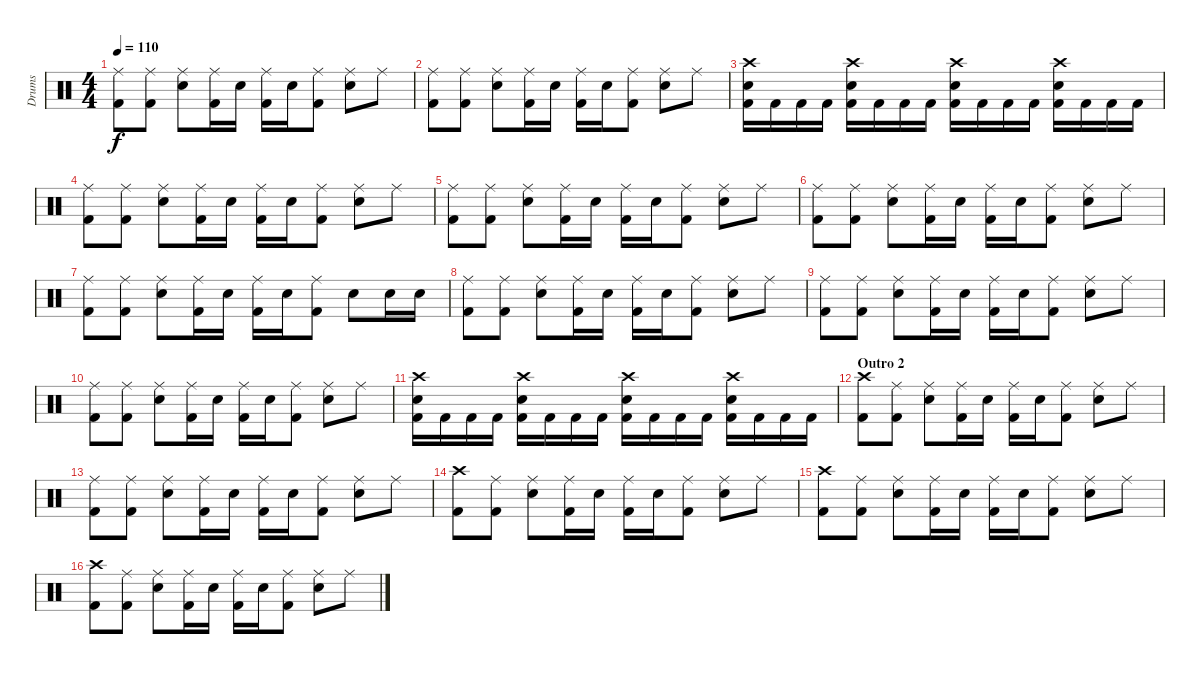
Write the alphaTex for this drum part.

\track ("Drums" "Drums") {instrument percussion}
\staff {score}
\articulation defaults
\ts (4 4)
\tempo 110
\clef neutral
\ks c
("Ride (middle)" "Kick (hit) 2").8{dy f} ("Ride (middle)" "Kick (hit) 2").8 ("Ride (middle)" "Electric Snare (hit)").8 ("Ride (middle)" "Kick (hit) 2").16 "Electric Snare (hit)".16 ("Ride (middle)" "Kick (hit) 2").16 "Electric Snare (hit)".16 ("Ride (middle)" "Kick (hit) 2").8 ("Ride (middle)" "Electric Snare (hit)").8 "Ride (middle)".8 |
("Ride (middle)" "Kick (hit) 2").8 ("Ride (middle)" "Kick (hit) 2").8 ("Ride (middle)" "Electric Snare (hit)").8 ("Ride (middle)" "Kick (hit) 2").16 "Electric Snare (hit)".16 ("Ride (middle)" "Kick (hit) 2").16 "Electric Snare (hit)".16 ("Ride (middle)" "Kick (hit) 2").8 ("Ride (middle)" "Electric Snare (hit)").8 "Ride (middle)".8 |
("Crash high (hit)" "Electric Snare (hit)" "Kick (hit) 2").16 "Kick (hit) 2".16 "Kick (hit) 2".16 "Kick (hit) 2".16 ("Crash high (hit)" "Electric Snare (hit)" "Kick (hit) 2").16 "Kick (hit) 2".16 "Kick (hit) 2".16 "Kick (hit) 2".16 ("Crash high (hit)" "Electric Snare (hit)" "Kick (hit) 2").16 "Kick (hit) 2".16 "Kick (hit) 2".16 "Kick (hit) 2".16 ("Crash high (hit)" "Electric Snare (hit)" "Kick (hit) 2").16 "Kick (hit) 2".16 "Kick (hit) 2".16 "Kick (hit) 2".16 |
("Ride (middle)" "Kick (hit) 2").8 ("Ride (middle)" "Kick (hit) 2").8 ("Ride (middle)" "Electric Snare (hit)").8 ("Ride (middle)" "Kick (hit) 2").16 "Electric Snare (hit)".16 ("Ride (middle)" "Kick (hit) 2").16 "Electric Snare (hit)".16 ("Ride (middle)" "Kick (hit) 2").8 ("Ride (middle)" "Electric Snare (hit)").8 "Ride (middle)".8 |
("Ride (middle)" "Kick (hit) 2").8 ("Ride (middle)" "Kick (hit) 2").8 ("Ride (middle)" "Electric Snare (hit)").8 ("Ride (middle)" "Kick (hit) 2").16 "Electric Snare (hit)".16 ("Ride (middle)" "Kick (hit) 2").16 "Electric Snare (hit)".16 ("Ride (middle)" "Kick (hit) 2").8 ("Ride (middle)" "Electric Snare (hit)").8 "Ride (middle)".8 |
("Ride (middle)" "Kick (hit) 2").8 ("Ride (middle)" "Kick (hit) 2").8 ("Ride (middle)" "Electric Snare (hit)").8 ("Ride (middle)" "Kick (hit) 2").16 "Electric Snare (hit)".16 ("Ride (middle)" "Kick (hit) 2").16 "Electric Snare (hit)".16 ("Ride (middle)" "Kick (hit) 2").8 ("Ride (middle)" "Electric Snare (hit)").8 "Ride (middle)".8 |
("Ride (middle)" "Kick (hit) 2").8 ("Ride (middle)" "Kick (hit) 2").8 ("Ride (middle)" "Electric Snare (hit)").8 ("Ride (middle)" "Kick (hit) 2").16 "Electric Snare (hit)".16 ("Ride (middle)" "Kick (hit) 2").16 "Electric Snare (hit)".16 ("Ride (middle)" "Kick (hit) 2").8 "Electric Snare (hit)".8 "Electric Snare (hit)".16 "Electric Snare (hit)".16 |
("Ride (middle)" "Kick (hit) 2").8 ("Ride (middle)" "Kick (hit) 2").8 ("Ride (middle)" "Electric Snare (hit)").8 ("Ride (middle)" "Kick (hit) 2").16 "Electric Snare (hit)".16 ("Ride (middle)" "Kick (hit) 2").16 "Electric Snare (hit)".16 ("Ride (middle)" "Kick (hit) 2").8 ("Ride (middle)" "Electric Snare (hit)").8 "Ride (middle)".8 |
("Ride (middle)" "Kick (hit) 2").8 ("Ride (middle)" "Kick (hit) 2").8 ("Ride (middle)" "Electric Snare (hit)").8 ("Ride (middle)" "Kick (hit) 2").16 "Electric Snare (hit)".16 ("Ride (middle)" "Kick (hit) 2").16 "Electric Snare (hit)".16 ("Ride (middle)" "Kick (hit) 2").8 ("Ride (middle)" "Electric Snare (hit)").8 "Ride (middle)".8 |
("Ride (middle)" "Kick (hit) 2").8 ("Ride (middle)" "Kick (hit) 2").8 ("Ride (middle)" "Electric Snare (hit)").8 ("Ride (middle)" "Kick (hit) 2").16 "Electric Snare (hit)".16 ("Ride (middle)" "Kick (hit) 2").16 "Electric Snare (hit)".16 ("Ride (middle)" "Kick (hit) 2").8 ("Ride (middle)" "Electric Snare (hit)").8 "Ride (middle)".8 |
("Crash high (hit)" "Electric Snare (hit)" "Kick (hit) 2").16 "Kick (hit) 2".16 "Kick (hit) 2".16 "Kick (hit) 2".16 ("Crash high (hit)" "Electric Snare (hit)" "Kick (hit) 2").16 "Kick (hit) 2".16 "Kick (hit) 2".16 "Kick (hit) 2".16 ("Crash high (hit)" "Electric Snare (hit)" "Kick (hit) 2").16 "Kick (hit) 2".16 "Kick (hit) 2".16 "Kick (hit) 2".16 ("Crash high (hit)" "Electric Snare (hit)" "Kick (hit) 2").16 "Kick (hit) 2".16 "Kick (hit) 2".16 "Kick (hit) 2".16 |
\section ("" "Outro 2")
("Crash high (hit)" "Kick (hit) 2").8 ("Ride (middle)" "Kick (hit) 2").8 ("Ride (middle)" "Electric Snare (hit)").8 ("Ride (middle)" "Kick (hit) 2").16 "Electric Snare (hit)".16 ("Ride (middle)" "Kick (hit) 2").16 "Electric Snare (hit)".16 ("Ride (middle)" "Kick (hit) 2").8 ("Ride (middle)" "Electric Snare (hit)").8 "Ride (middle)".8 |
("Ride (middle)" "Kick (hit) 2").8 ("Ride (middle)" "Kick (hit) 2").8 ("Ride (middle)" "Electric Snare (hit)").8 ("Ride (middle)" "Kick (hit) 2").16 "Electric Snare (hit)".16 ("Ride (middle)" "Kick (hit) 2").16 "Electric Snare (hit)".16 ("Ride (middle)" "Kick (hit) 2").8 ("Ride (middle)" "Electric Snare (hit)").8 "Ride (middle)".8 |
("Crash high (hit)" "Kick (hit) 2").8 ("Ride (middle)" "Kick (hit) 2").8 ("Ride (middle)" "Electric Snare (hit)").8 ("Ride (middle)" "Kick (hit) 2").16 "Electric Snare (hit)".16 ("Ride (middle)" "Kick (hit) 2").16 "Electric Snare (hit)".16 ("Ride (middle)" "Kick (hit) 2").8 ("Ride (middle)" "Electric Snare (hit)").8 "Ride (middle)".8 |
("Crash high (hit)" "Kick (hit) 2").8 ("Ride (middle)" "Kick (hit) 2").8 ("Ride (middle)" "Electric Snare (hit)").8 ("Ride (middle)" "Kick (hit) 2").16 "Electric Snare (hit)".16 ("Ride (middle)" "Kick (hit) 2").16 "Electric Snare (hit)".16 ("Ride (middle)" "Kick (hit) 2").8 ("Ride (middle)" "Electric Snare (hit)").8 "Ride (middle)".8 |
("Crash high (hit)" "Kick (hit) 2").8 ("Ride (middle)" "Kick (hit) 2").8 ("Ride (middle)" "Electric Snare (hit)").8 ("Ride (middle)" "Kick (hit) 2").16 "Electric Snare (hit)".16 ("Ride (middle)" "Kick (hit) 2").16 "Electric Snare (hit)".16 ("Ride (middle)" "Kick (hit) 2").8 ("Ride (middle)" "Electric Snare (hit)").8 "Ride (middle)".8
